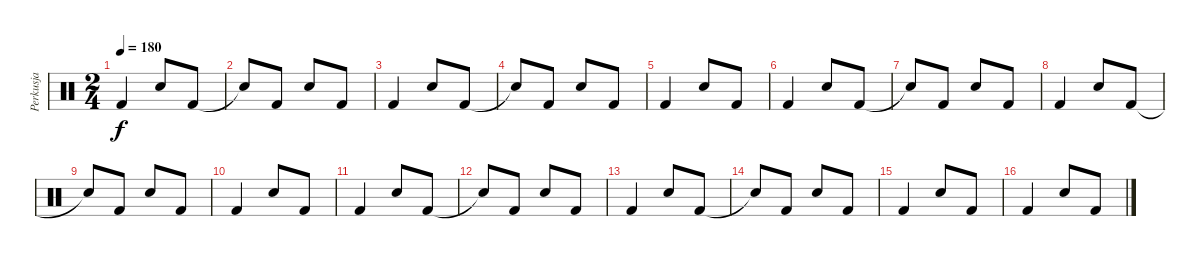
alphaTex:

\track ("Perkusja" "Perkusja") {instrument percussion}
\staff {score}
\articulation defaults
\ts (2 4)
\tempo 180
\clef neutral
\ks c "Kick (hit) 2".4{dy f} "Snare (hit) 2".8 "Kick (hit) 2".8
|
"Snare (hit)"{t}.8 "Kick (hit) 2".8 "Snare (hit) 2".8 "Kick (hit) 2".8 |
"Kick (hit) 2".4 "Snare (hit) 2".8 "Kick (hit) 2".8 |
"Snare (hit)"{t}.8 "Kick (hit) 2".8 "Snare (hit) 2".8 "Kick (hit) 2".8 |
"Kick (hit) 2".4 "Snare (hit) 2".8 "Kick (hit) 2".8 |
"Kick (hit) 2".4 "Snare (hit) 2".8 "Kick (hit) 2".8 |
"Snare (hit)"{t}.8 "Kick (hit) 2".8 "Snare (hit) 2".8 "Kick (hit) 2".8 |
"Kick (hit) 2".4 "Snare (hit) 2".8 "Kick (hit) 2".8 |
"Snare (hit)"{t}.8 "Kick (hit) 2".8 "Snare (hit) 2".8 "Kick (hit) 2".8 |
"Kick (hit) 2".4 "Snare (hit) 2".8 "Kick (hit) 2".8 |
"Kick (hit) 2".4 "Snare (hit) 2".8 "Kick (hit) 2".8 |
"Snare (hit)"{t}.8 "Kick (hit) 2".8 "Snare (hit) 2".8 "Kick (hit) 2".8 |
"Kick (hit) 2".4 "Snare (hit) 2".8 "Kick (hit) 2".8 |
"Snare (hit)"{t}.8 "Kick (hit) 2".8 "Snare (hit) 2".8 "Kick (hit) 2".8 |
"Kick (hit) 2".4 "Snare (hit) 2".8 "Kick (hit) 2".8 |
"Kick (hit) 2".4 "Snare (hit) 2".8 "Kick (hit) 2".8
